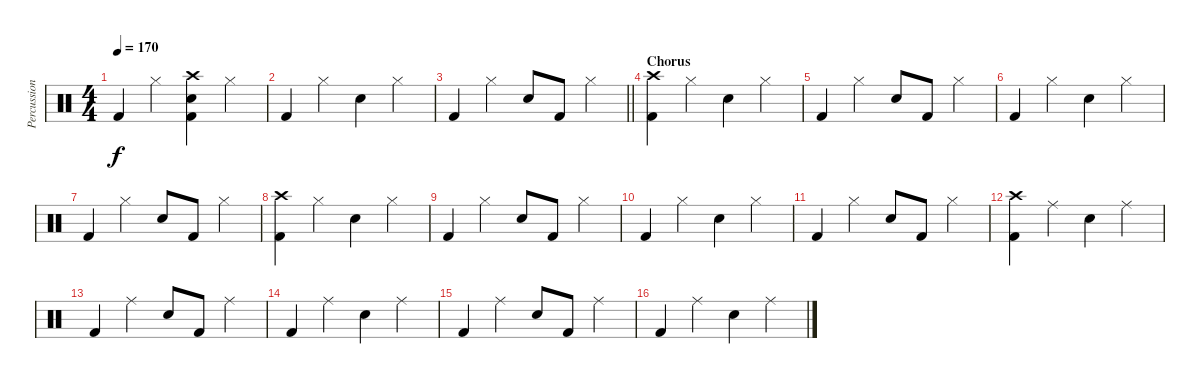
\track ("Percussion" "Percussion") {instrument percussion}
\staff {score}
\articulation defaults
\ts (4 4)
\tempo 170
\clef neutral
\ks c "Kick (hit) 2".4{dy f} "Hi-Hat (closed)".4
("Snare (hit) 2" "Crash high (hit)" "Kick (hit) 2").4 "Hi-Hat (closed)".4 |
"Kick (hit) 2".4 "Hi-Hat (closed)".4 "Snare (hit) 2".4 "Hi-Hat (closed)".4 |
\barLineRight lightlight "Kick (hit) 2".4 "Hi-Hat (closed)".4 "Snare (hit) 2".8 "Kick (hit) 2".8 "Hi-Hat (closed)".4
|
\section ("" "Chorus")
("Crash high (hit)" "Kick (hit) 2").4 "Hi-Hat (closed)".4 "Snare (hit) 2".4 "Hi-Hat (closed)".4 |
"Kick (hit) 2".4 "Hi-Hat (closed)".4 "Snare (hit) 2".8 "Kick (hit) 2".8 "Hi-Hat (closed)".4 |
"Kick (hit) 2".4 "Hi-Hat (closed)".4 "Snare (hit) 2".4 "Hi-Hat (closed)".4 |
"Kick (hit) 2".4 "Hi-Hat (closed)".4 "Snare (hit) 2".8 "Kick (hit) 2".8 "Hi-Hat (closed)".4 |
("Crash high (hit)" "Kick (hit) 2").4 "Hi-Hat (closed)".4 "Snare (hit) 2".4 "Hi-Hat (closed)".4 |
"Kick (hit) 2".4 "Hi-Hat (closed)".4 "Snare (hit) 2".8 "Kick (hit) 2".8 "Hi-Hat (closed)".4 |
"Kick (hit) 2".4 "Hi-Hat (closed)".4 "Snare (hit) 2".4 "Hi-Hat (closed)".4 |
"Kick (hit) 2".4 "Hi-Hat (closed)".4 "Snare (hit) 2".8 "Kick (hit) 2".8 "Hi-Hat (closed)".4 |
("Crash high (hit)" "Kick (hit) 2").4 "Ride (middle)".4 "Snare (hit) 2".4 "Ride (middle)".4 |
"Kick (hit) 2".4 "Ride (middle)".4 "Snare (hit) 2".8 "Kick (hit) 2".8 "Ride (middle)".4 |
"Kick (hit) 2".4 "Ride (middle)".4 "Snare (hit) 2".4 "Ride (middle)".4 |
"Kick (hit) 2".4 "Ride (middle)".4 "Snare (hit) 2".8 "Kick (hit) 2".8 "Ride (middle)".4 |
"Kick (hit) 2".4 "Ride (middle)".4 "Snare (hit) 2".4 "Ride (middle)".4
